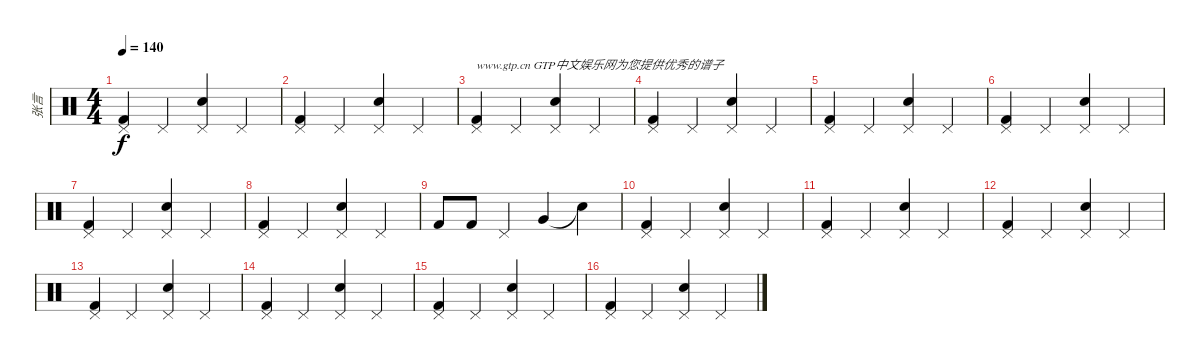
\track ("张言" "张言") {instrument percussion}
\staff {score}
\articulation defaults
\ts (4 4)
\tempo 140
\clef neutral
\ks c
("Kick (hit) 2" "Pedal Hi-Hat (hit)").4{dy f} "Pedal Hi-Hat (hit)".4 ("Snare (hit) 2" "Pedal Hi-Hat (hit)").4 "Pedal Hi-Hat (hit)".4 |
("Kick (hit) 2" "Pedal Hi-Hat (hit)").4 "Pedal Hi-Hat (hit)".4 ("Snare (hit) 2" "Pedal Hi-Hat (hit)").4 "Pedal Hi-Hat (hit)".4 |
("Kick (hit) 2" "Pedal Hi-Hat (hit)").4{txt "www.gtp.cn GTP中文娱乐网为您提供优秀的谱子"} "Pedal Hi-Hat (hit)".4 ("Snare (hit) 2" "Pedal Hi-Hat (hit)").4 "Pedal Hi-Hat (hit)".4 |
("Kick (hit) 2" "Pedal Hi-Hat (hit)").4 "Pedal Hi-Hat (hit)".4 ("Snare (hit) 2" "Pedal Hi-Hat (hit)").4 "Pedal Hi-Hat (hit)".4 |
("Kick (hit) 2" "Pedal Hi-Hat (hit)").4 "Pedal Hi-Hat (hit)".4 ("Snare (hit) 2" "Pedal Hi-Hat (hit)").4 "Pedal Hi-Hat (hit)".4 |
("Kick (hit) 2" "Pedal Hi-Hat (hit)").4 "Pedal Hi-Hat (hit)".4 ("Snare (hit) 2" "Pedal Hi-Hat (hit)").4 "Pedal Hi-Hat (hit)".4 |
("Kick (hit) 2" "Pedal Hi-Hat (hit)").4 "Pedal Hi-Hat (hit)".4 ("Snare (hit) 2" "Pedal Hi-Hat (hit)").4 "Pedal Hi-Hat (hit)".4 |
("Kick (hit) 2" "Pedal Hi-Hat (hit)").4 "Pedal Hi-Hat (hit)".4 ("Snare (hit) 2" "Pedal Hi-Hat (hit)").4 "Pedal Hi-Hat (hit)".4 |
"Kick (hit) 2".8 "Kick (hit) 2".8 "Pedal Hi-Hat (hit)".4 "Very Low Tom (hit)".4 "Snare (hit)"{t}.4 |
("Kick (hit) 2" "Pedal Hi-Hat (hit)").4 "Pedal Hi-Hat (hit)".4 ("Snare (hit) 2" "Pedal Hi-Hat (hit)").4 "Pedal Hi-Hat (hit)".4 |
("Kick (hit) 2" "Pedal Hi-Hat (hit)").4 "Pedal Hi-Hat (hit)".4 ("Snare (hit) 2" "Pedal Hi-Hat (hit)").4 "Pedal Hi-Hat (hit)".4 |
("Kick (hit) 2" "Pedal Hi-Hat (hit)").4 "Pedal Hi-Hat (hit)".4 ("Snare (hit) 2" "Pedal Hi-Hat (hit)").4 "Pedal Hi-Hat (hit)".4 |
("Kick (hit) 2" "Pedal Hi-Hat (hit)").4 "Pedal Hi-Hat (hit)".4 ("Snare (hit) 2" "Pedal Hi-Hat (hit)").4 "Pedal Hi-Hat (hit)".4 |
("Kick (hit) 2" "Pedal Hi-Hat (hit)").4 "Pedal Hi-Hat (hit)".4 ("Snare (hit) 2" "Pedal Hi-Hat (hit)").4 "Pedal Hi-Hat (hit)".4 |
("Kick (hit) 2" "Pedal Hi-Hat (hit)").4 "Pedal Hi-Hat (hit)".4 ("Snare (hit) 2" "Pedal Hi-Hat (hit)").4 "Pedal Hi-Hat (hit)".4 |
("Kick (hit) 2" "Pedal Hi-Hat (hit)").4 "Pedal Hi-Hat (hit)".4 ("Snare (hit) 2" "Pedal Hi-Hat (hit)").4 "Pedal Hi-Hat (hit)".4
